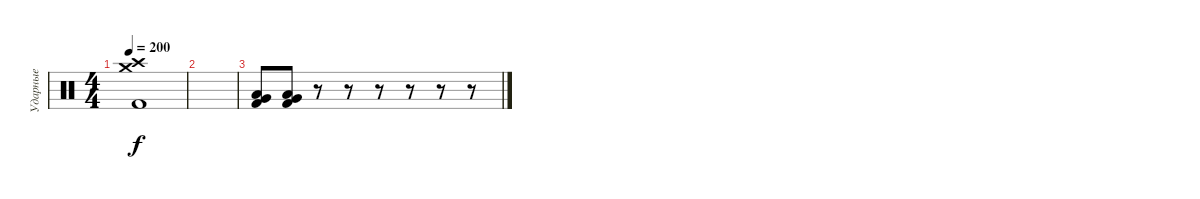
\track ("Ударные" "Ударные") {instrument percussion}
\staff {score}
\articulation defaults
\ts (4 4)
\tempo 200
\clef neutral
\ks c
("Kick (hit) 2" "Crash medium (hit)" "Crash high (hit)").1{dy f} |
|
("Kick (hit) 2" "Very Low Tom (hit)" "Low Floor Tom (hit)").8 ("Kick (hit) 2" "Very Low Tom (hit)" "Low Floor Tom (hit)").8 r.8 r.8 r.8 r.8 r.8 r.8
